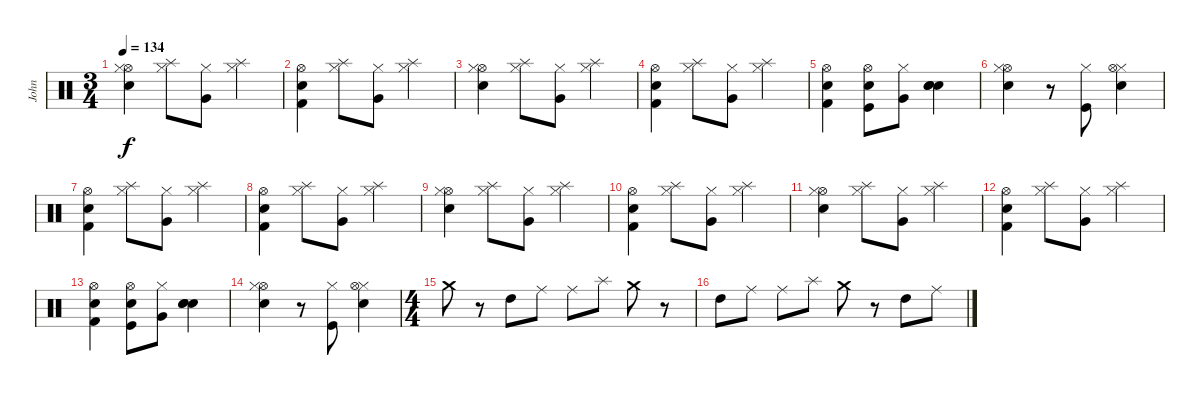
\track ("John" "John") {instrument percussion}
\staff {score}
\articulation defaults
\ts (3 4)
\tempo 134
\clef neutral
\ks c
("Hi-Hat (open)" "Hi-Hat (closed)" "Electric Snare (hit)").4{dy f} ("Hi-Hat (closed)" "Splash (hit)").8 ("Hi-Hat (closed)" "Very Low Tom (hit)").8 ("Hi-Hat (closed)" "Splash (hit)").4 |
("Hi-Hat (open)" "Electric Snare (hit)" "Kick (hit) 2").4 ("Hi-Hat (closed)" "Splash (hit)").8 ("Hi-Hat (closed)" "Very Low Tom (hit)").8 ("Hi-Hat (closed)" "Splash (hit)").4 |
("Hi-Hat (open)" "Hi-Hat (closed)" "Electric Snare (hit)").4 ("Hi-Hat (closed)" "Splash (hit)").8 ("Hi-Hat (closed)" "Very Low Tom (hit)").8 ("Hi-Hat (closed)" "Splash (hit)").4 |
("Hi-Hat (open)" "Electric Snare (hit)" "Kick (hit) 2").4 ("Hi-Hat (closed)" "Splash (hit)").8 ("Hi-Hat (closed)" "Very Low Tom (hit)").8 ("Hi-Hat (closed)" "Splash (hit)").4 |
("Hi-Hat (open)" "Electric Snare (hit)" "Kick (hit) 2").4 ("Hi-Hat (open)" "Electric Snare (hit)" "Kick (hit)").8 ("Hi-Hat (closed)" "Very Low Tom (hit)").8 ("Electric Snare (hit)" "Electric Snare (hit)" "Snare (hit) 2").4 |
("Hi-Hat (open)" "Hi-Hat (closed)" "Electric Snare (hit)").4 r.8 ("Hi-Hat (closed)" "Kick (hit)").8 ("Hi-Hat (closed)" "Electric Snare (hit)" "Hi-Hat (open)").4 |
("Hi-Hat (open)" "Electric Snare (hit)" "Kick (hit) 2").4 ("Hi-Hat (closed)" "Splash (hit)").8 ("Hi-Hat (closed)" "Very Low Tom (hit)").8 ("Hi-Hat (closed)" "Splash (hit)").4 |
("Hi-Hat (open)" "Electric Snare (hit)" "Kick (hit) 2").4 ("Hi-Hat (closed)" "Splash (hit)").8 ("Hi-Hat (closed)" "Very Low Tom (hit)").8 ("Hi-Hat (closed)" "Splash (hit)").4 |
("Hi-Hat (open)" "Hi-Hat (closed)" "Electric Snare (hit)").4 ("Hi-Hat (closed)" "Splash (hit)").8 ("Hi-Hat (closed)" "Very Low Tom (hit)").8 ("Hi-Hat (closed)" "Splash (hit)").4 |
("Hi-Hat (open)" "Electric Snare (hit)" "Kick (hit) 2").4 ("Hi-Hat (closed)" "Splash (hit)").8 ("Hi-Hat (closed)" "Very Low Tom (hit)").8 ("Hi-Hat (closed)" "Splash (hit)").4 |
("Hi-Hat (open)" "Hi-Hat (closed)" "Electric Snare (hit)").4 ("Hi-Hat (closed)" "Splash (hit)").8 ("Hi-Hat (closed)" "Very Low Tom (hit)").8 ("Hi-Hat (closed)" "Splash (hit)").4 |
("Hi-Hat (open)" "Electric Snare (hit)" "Kick (hit) 2").4 ("Hi-Hat (closed)" "Splash (hit)").8 ("Hi-Hat (closed)" "Very Low Tom (hit)").8 ("Hi-Hat (closed)" "Splash (hit)").4 |
("Hi-Hat (open)" "Electric Snare (hit)" "Kick (hit) 2").4 ("Hi-Hat (open)" "Electric Snare (hit)" "Kick (hit)").8 ("Hi-Hat (closed)" "Very Low Tom (hit)").8 ("Electric Snare (hit)" "Electric Snare (hit)" "Snare (hit) 2").4 |
("Hi-Hat (open)" "Hi-Hat (closed)" "Electric Snare (hit)").4 r.8 ("Hi-Hat (closed)" "Kick (hit)").8 ("Hi-Hat (closed)" "Electric Snare (hit)" "Hi-Hat (open)").4 |
\ts (4 4)
"Crash medium (hit)".8 r.8 "High Tom (hit)".8 "Ride (middle)".8 "Ride (middle)".8 "Splash (hit)".8 "Crash medium (hit)".8 r.8 |
"High Tom (hit)".8 "Ride (middle)".8 "Ride (middle)".8 "Splash (hit)".8 "Crash medium (hit)".8 r.8 "High Tom (hit)".8 "Ride (middle)".8
